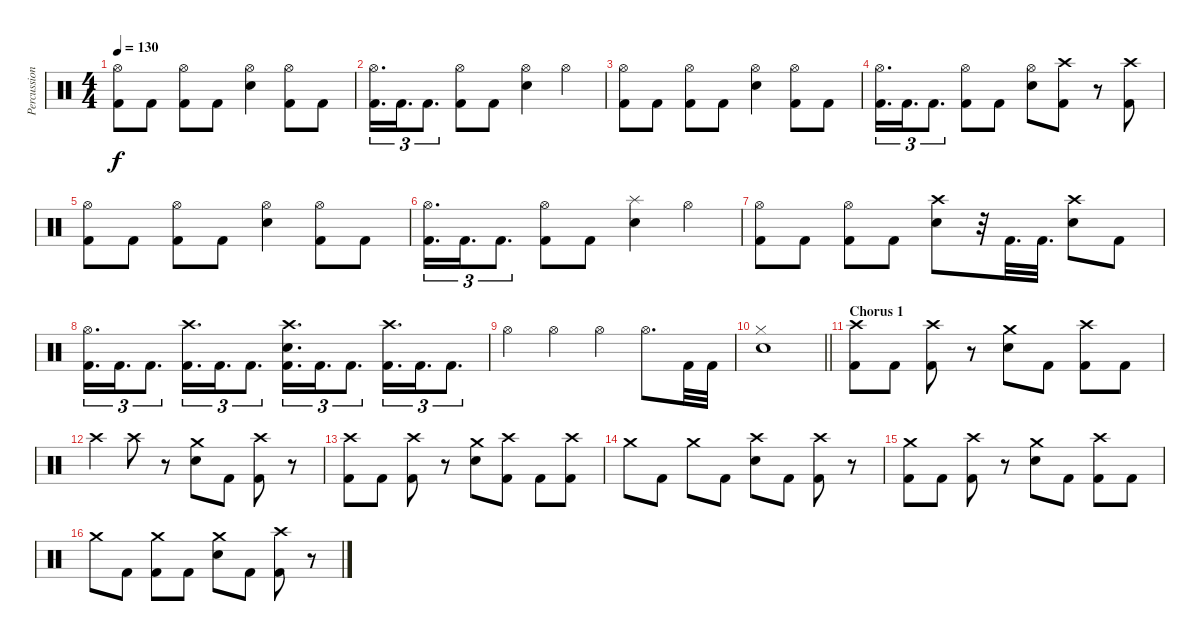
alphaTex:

\track ("Percussion" "Percussion") {instrument percussion}
\staff {score}
\articulation defaults
\ts (4 4)
\tempo 130
\clef neutral
\ks c
("Hi-Hat (open)" "Kick (hit) 2").8{dy f volume 13} "Kick (hit) 2".8 ("Hi-Hat (open)" "Kick (hit) 2").8 "Kick (hit) 2".8 ("Hi-Hat (open)" "Electric Snare (hit)").4 ("Hi-Hat (open)" "Kick (hit) 2").8 "Kick (hit) 2".8 |
("Hi-Hat (open)" "Kick (hit) 2").16{d tu (3 2)} "Kick (hit) 2".16{d tu (3 2)} "Kick (hit) 2".8{d tu (3 2) beam split} ("Hi-Hat (open)" "Kick (hit) 2").8{beam merge} "Kick (hit) 2".8 ("Hi-Hat (open)" "Electric Snare (hit)").4 "Hi-Hat (open)".4 |
("Hi-Hat (open)" "Kick (hit) 2").8{volume 13} "Kick (hit) 2".8 ("Hi-Hat (open)" "Kick (hit) 2").8 "Kick (hit) 2".8 ("Hi-Hat (open)" "Electric Snare (hit)").4 ("Hi-Hat (open)" "Kick (hit) 2").8 "Kick (hit) 2".8 |
("Hi-Hat (open)" "Kick (hit) 2").16{d tu (3 2)} "Kick (hit) 2".16{d tu (3 2)} "Kick (hit) 2".8{d tu (3 2) beam split} ("Hi-Hat (open)" "Kick (hit) 2").8{beam merge} "Kick (hit) 2".8 ("Hi-Hat (open)" "Electric Snare (hit)").8 ("Crash high (hit)" "Kick (hit) 2").8 r.8 ("Crash high (hit)" "Kick (hit) 2").8 |
("Hi-Hat (open)" "Kick (hit) 2").8{volume 13} "Kick (hit) 2".8 ("Hi-Hat (open)" "Kick (hit) 2").8 "Kick (hit) 2".8 ("Hi-Hat (open)" "Electric Snare (hit)").4 ("Hi-Hat (open)" "Kick (hit) 2").8 "Kick (hit) 2".8 |
("Hi-Hat (open)" "Kick (hit) 2").16{d tu (3 2)} "Kick (hit) 2".16{d tu (3 2)} "Kick (hit) 2".8{d tu (3 2) beam split} ("Hi-Hat (open)" "Kick (hit) 2").8{beam merge} "Kick (hit) 2".8 ("Splash (hit)" "Electric Snare (hit)").4 "Hi-Hat (open)".4 |
("Hi-Hat (open)" "Kick (hit) 2").8{volume 13} "Kick (hit) 2".8 ("Hi-Hat (open)" "Kick (hit) 2").8 "Kick (hit) 2".8 ("Crash high (hit)" "Electric Snare (hit)").8 r.32 "Kick (hit) 2".32{d} "Kick (hit) 2".32{d} ("Crash high (hit)" "Electric Snare (hit)").8 "Kick (hit) 2".8 |
("Hi-Hat (open)" "Kick (hit) 2").16{d tu (3 2)} "Kick (hit) 2".16{d tu (3 2)} "Kick (hit) 2".8{d tu (3 2)} ("Crash high (hit)" "Kick (hit) 2").16{d tu (3 2)} "Kick (hit) 2".16{d tu (3 2)} "Kick (hit) 2".8{d tu (3 2)} ("Crash high (hit)" "Electric Snare (hit)" "Kick (hit) 2").16{d tu (3 2)} "Kick (hit) 2".16{d tu (3 2)} "Kick (hit) 2".8{d tu (3 2)} ("Crash high (hit)" "Kick (hit) 2").16{d tu (3 2)} "Kick (hit) 2".16{d tu (3 2)} "Kick (hit) 2".8{d tu (3 2)} |
"Hi-Hat (open)".4 "Hi-Hat (open)".4 "Hi-Hat (open)".4 "Hi-Hat (open)".8{d} "Kick (hit) 2".32 "Kick (hit) 2".32 |
\barLineRight lightlight
("Hi-Hat (closed)" "Electric Snare (hit)").1 |
\section ("" "Chorus 1")
("Kick (hit) 2" "Crash high (hit)").8 "Kick (hit) 2".8 ("Kick (hit) 2" "Crash high (hit)").8 r.8 ("Electric Snare (hit)" "Crash medium (hit)").8 "Kick (hit) 2".8 ("Kick (hit) 2" "Crash high (hit)").8 "Kick (hit) 2".8 |
"Crash high (hit)".4 "Crash high (hit)".8 r.8 ("Electric Snare (hit)" "Crash medium (hit)").8 "Kick (hit) 2".8 ("Kick (hit) 2" "Crash high (hit)").8 r.8 |
("Kick (hit) 2" "Crash high (hit)").8 "Kick (hit) 2".8 ("Kick (hit) 2" "Crash high (hit)").8 r.8 ("Electric Snare (hit)" "Crash medium (hit)").8 ("Kick (hit) 2" "Crash high (hit)").8 "Kick (hit) 2".8 ("Kick (hit) 2" "Crash high (hit)").8 |
"Crash medium (hit)".8 "Kick (hit) 2".8 "Crash medium (hit)".8 "Kick (hit) 2".8 ("Electric Snare (hit)" "Crash high (hit)").8 "Kick (hit) 2".8 ("Kick (hit) 2" "Crash high (hit)").8 r.8 |
("Kick (hit) 2" "Crash medium (hit)").8 "Kick (hit) 2".8 ("Kick (hit) 2" "Crash high (hit)").8 r.8 ("Electric Snare (hit)" "Crash medium (hit)").8 "Kick (hit) 2".8 ("Kick (hit) 2" "Crash high (hit)").8 "Kick (hit) 2".8 |
"Crash medium (hit)".8 "Kick (hit) 2".8 ("Kick (hit) 2" "Crash medium (hit)").8 "Kick (hit) 2".8 ("Electric Snare (hit)" "Crash medium (hit)").8 "Kick (hit) 2".8 ("Kick (hit) 2" "Crash high (hit)").8 r.8
